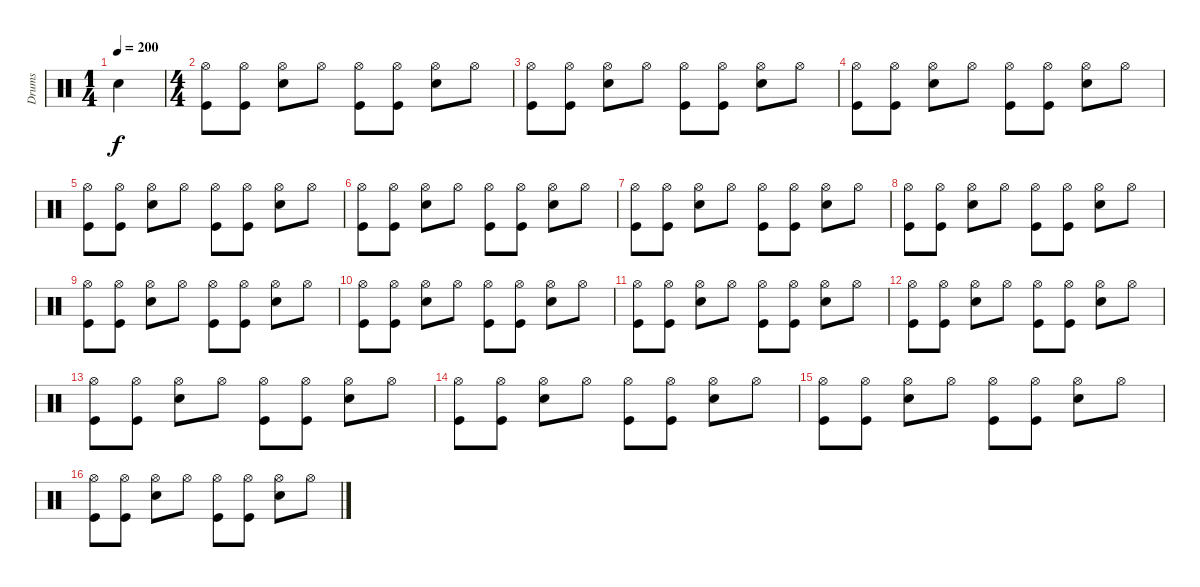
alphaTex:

\track ("Drums" "Drums") {instrument percussion}
\staff {score}
\articulation defaults
\ts (1 4)
\tempo 200
\clef neutral
\ks c "Electric Snare (hit)".4{dy f}
|
\ts (4 4)
("Kick (hit)" "Hi-Hat (open)").8 ("Kick (hit)" "Hi-Hat (open)").8 ("Electric Snare (hit)" "Hi-Hat (open)").8 "Hi-Hat (open)".8 ("Kick (hit)" "Hi-Hat (open)").8 ("Kick (hit)" "Hi-Hat (open)").8 ("Electric Snare (hit)" "Hi-Hat (open)").8 "Hi-Hat (open)".8 |
("Kick (hit)" "Hi-Hat (open)").8 ("Kick (hit)" "Hi-Hat (open)").8 ("Electric Snare (hit)" "Hi-Hat (open)").8 "Hi-Hat (open)".8 ("Kick (hit)" "Hi-Hat (open)").8 ("Kick (hit)" "Hi-Hat (open)").8 ("Electric Snare (hit)" "Hi-Hat (open)").8 "Hi-Hat (open)".8 |
("Kick (hit)" "Hi-Hat (open)").8 ("Kick (hit)" "Hi-Hat (open)").8 ("Electric Snare (hit)" "Hi-Hat (open)").8 "Hi-Hat (open)".8 ("Kick (hit)" "Hi-Hat (open)").8 ("Kick (hit)" "Hi-Hat (open)").8 ("Electric Snare (hit)" "Hi-Hat (open)").8 "Hi-Hat (open)".8 |
("Kick (hit)" "Hi-Hat (open)").8 ("Kick (hit)" "Hi-Hat (open)").8 ("Electric Snare (hit)" "Hi-Hat (open)").8 "Hi-Hat (open)".8 ("Kick (hit)" "Hi-Hat (open)").8 ("Kick (hit)" "Hi-Hat (open)").8 ("Electric Snare (hit)" "Hi-Hat (open)").8 "Hi-Hat (open)".8 |
("Kick (hit)" "Hi-Hat (open)").8 ("Kick (hit)" "Hi-Hat (open)").8 ("Electric Snare (hit)" "Hi-Hat (open)").8 "Hi-Hat (open)".8 ("Kick (hit)" "Hi-Hat (open)").8 ("Kick (hit)" "Hi-Hat (open)").8 ("Electric Snare (hit)" "Hi-Hat (open)").8 "Hi-Hat (open)".8 |
("Kick (hit)" "Hi-Hat (open)").8 ("Kick (hit)" "Hi-Hat (open)").8 ("Electric Snare (hit)" "Hi-Hat (open)").8 "Hi-Hat (open)".8 ("Kick (hit)" "Hi-Hat (open)").8 ("Kick (hit)" "Hi-Hat (open)").8 ("Electric Snare (hit)" "Hi-Hat (open)").8 "Hi-Hat (open)".8 |
("Kick (hit)" "Hi-Hat (open)").8 ("Kick (hit)" "Hi-Hat (open)").8 ("Electric Snare (hit)" "Hi-Hat (open)").8 "Hi-Hat (open)".8 ("Kick (hit)" "Hi-Hat (open)").8 ("Kick (hit)" "Hi-Hat (open)").8 ("Electric Snare (hit)" "Hi-Hat (open)").8 "Hi-Hat (open)".8 |
("Kick (hit)" "Hi-Hat (open)").8 ("Kick (hit)" "Hi-Hat (open)").8 ("Electric Snare (hit)" "Hi-Hat (open)").8 "Hi-Hat (open)".8 ("Kick (hit)" "Hi-Hat (open)").8 ("Kick (hit)" "Hi-Hat (open)").8 ("Electric Snare (hit)" "Hi-Hat (open)").8 "Hi-Hat (open)".8 |
("Kick (hit)" "Hi-Hat (open)").8 ("Kick (hit)" "Hi-Hat (open)").8 ("Electric Snare (hit)" "Hi-Hat (open)").8 "Hi-Hat (open)".8 ("Kick (hit)" "Hi-Hat (open)").8 ("Kick (hit)" "Hi-Hat (open)").8 ("Electric Snare (hit)" "Hi-Hat (open)").8 "Hi-Hat (open)".8 |
("Kick (hit)" "Hi-Hat (open)").8 ("Kick (hit)" "Hi-Hat (open)").8 ("Electric Snare (hit)" "Hi-Hat (open)").8 "Hi-Hat (open)".8 ("Kick (hit)" "Hi-Hat (open)").8 ("Kick (hit)" "Hi-Hat (open)").8 ("Electric Snare (hit)" "Hi-Hat (open)").8 "Hi-Hat (open)".8 |
("Kick (hit)" "Hi-Hat (open)").8 ("Kick (hit)" "Hi-Hat (open)").8 ("Electric Snare (hit)" "Hi-Hat (open)").8 "Hi-Hat (open)".8 ("Kick (hit)" "Hi-Hat (open)").8 ("Kick (hit)" "Hi-Hat (open)").8 ("Electric Snare (hit)" "Hi-Hat (open)").8 "Hi-Hat (open)".8 |
("Kick (hit)" "Hi-Hat (open)").8 ("Kick (hit)" "Hi-Hat (open)").8 ("Electric Snare (hit)" "Hi-Hat (open)").8 "Hi-Hat (open)".8 ("Kick (hit)" "Hi-Hat (open)").8 ("Kick (hit)" "Hi-Hat (open)").8 ("Electric Snare (hit)" "Hi-Hat (open)").8 "Hi-Hat (open)".8 |
("Kick (hit)" "Hi-Hat (open)").8 ("Kick (hit)" "Hi-Hat (open)").8 ("Electric Snare (hit)" "Hi-Hat (open)").8 "Hi-Hat (open)".8 ("Kick (hit)" "Hi-Hat (open)").8 ("Kick (hit)" "Hi-Hat (open)").8 ("Electric Snare (hit)" "Hi-Hat (open)").8 "Hi-Hat (open)".8 |
("Kick (hit)" "Hi-Hat (open)").8 ("Kick (hit)" "Hi-Hat (open)").8 ("Electric Snare (hit)" "Hi-Hat (open)").8 "Hi-Hat (open)".8 ("Kick (hit)" "Hi-Hat (open)").8 ("Kick (hit)" "Hi-Hat (open)").8 ("Electric Snare (hit)" "Hi-Hat (open)").8 "Hi-Hat (open)".8 |
("Kick (hit)" "Hi-Hat (open)").8 ("Kick (hit)" "Hi-Hat (open)").8 ("Electric Snare (hit)" "Hi-Hat (open)").8 "Hi-Hat (open)".8 ("Kick (hit)" "Hi-Hat (open)").8 ("Kick (hit)" "Hi-Hat (open)").8 ("Electric Snare (hit)" "Hi-Hat (open)").8 "Hi-Hat (open)".8
